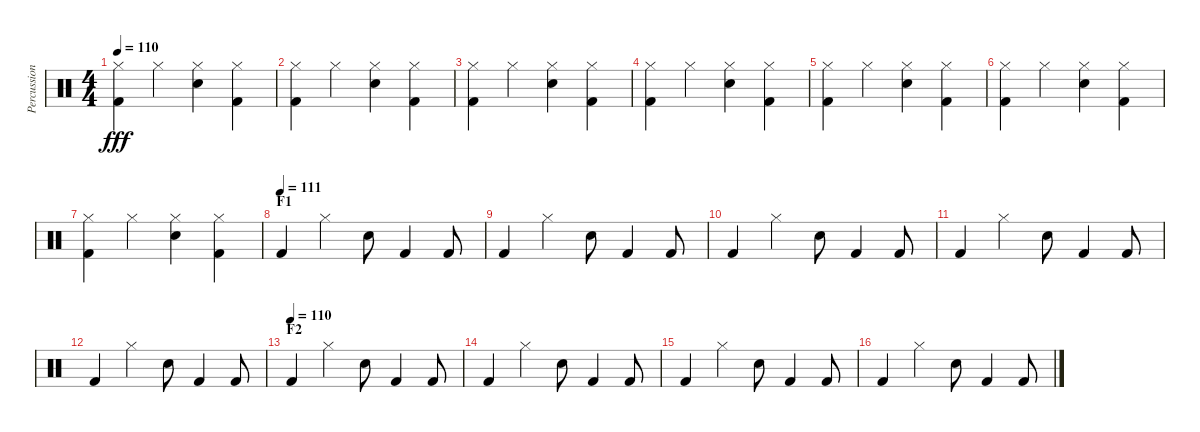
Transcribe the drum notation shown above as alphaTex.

\track ("Percussion" "Percussion") {instrument percussion}
\staff {score}
\articulation defaults
\ts (4 4)
\tempo 110
\clef neutral
\ks c
("Kick (hit) 2" "Hi-Hat (closed)").4{dy fff} "Hi-Hat (closed)".4 ("Electric Snare (hit)" "Hi-Hat (closed)").4 ("Kick (hit) 2" "Hi-Hat (closed)").4 |
("Kick (hit) 2" "Hi-Hat (closed)").4 "Hi-Hat (closed)".4 ("Electric Snare (hit)" "Hi-Hat (closed)").4 ("Kick (hit) 2" "Hi-Hat (closed)").4 |
("Kick (hit) 2" "Hi-Hat (closed)").4 "Hi-Hat (closed)".4 ("Electric Snare (hit)" "Hi-Hat (closed)").4 ("Kick (hit) 2" "Hi-Hat (closed)").4 |
("Kick (hit) 2" "Hi-Hat (closed)").4 "Hi-Hat (closed)".4 ("Electric Snare (hit)" "Hi-Hat (closed)").4 ("Kick (hit) 2" "Hi-Hat (closed)").4 |
("Kick (hit) 2" "Hi-Hat (closed)").4 "Hi-Hat (closed)".4 ("Electric Snare (hit)" "Hi-Hat (closed)").4 ("Kick (hit) 2" "Hi-Hat (closed)").4 |
("Kick (hit) 2" "Hi-Hat (closed)").4 "Hi-Hat (closed)".4 ("Electric Snare (hit)" "Hi-Hat (closed)").4 ("Kick (hit) 2" "Hi-Hat (closed)").4 |
("Kick (hit) 2" "Hi-Hat (closed)").4 "Hi-Hat (closed)".4 ("Electric Snare (hit)" "Hi-Hat (closed)").4 ("Kick (hit) 2" "Hi-Hat (closed)").4 |
\section ("" "F1")
\tempo (111)
"Kick (hit) 2".4 "Hi-Hat (closed)".4 "Electric Snare (hit)".8 "Kick (hit) 2".4 "Kick (hit) 2".8 |
"Kick (hit) 2".4 "Hi-Hat (closed)".4 "Electric Snare (hit)".8 "Kick (hit) 2".4 "Kick (hit) 2".8 |
"Kick (hit) 2".4 "Hi-Hat (closed)".4 "Electric Snare (hit)".8 "Kick (hit) 2".4 "Kick (hit) 2".8 |
"Kick (hit) 2".4 "Hi-Hat (closed)".4 "Electric Snare (hit)".8 "Kick (hit) 2".4 "Kick (hit) 2".8 |
"Kick (hit) 2".4 "Hi-Hat (closed)".4 "Electric Snare (hit)".8 "Kick (hit) 2".4 "Kick (hit) 2".8 |
\section ("" "F2")
\tempo (110)
"Kick (hit) 2".4 "Hi-Hat (closed)".4 "Electric Snare (hit)".8 "Kick (hit) 2".4 "Kick (hit) 2".8 |
"Kick (hit) 2".4 "Hi-Hat (closed)".4 "Electric Snare (hit)".8 "Kick (hit) 2".4 "Kick (hit) 2".8 |
"Kick (hit) 2".4 "Hi-Hat (closed)".4 "Electric Snare (hit)".8 "Kick (hit) 2".4 "Kick (hit) 2".8 |
"Kick (hit) 2".4 "Hi-Hat (closed)".4 "Electric Snare (hit)".8 "Kick (hit) 2".4 "Kick (hit) 2".8
